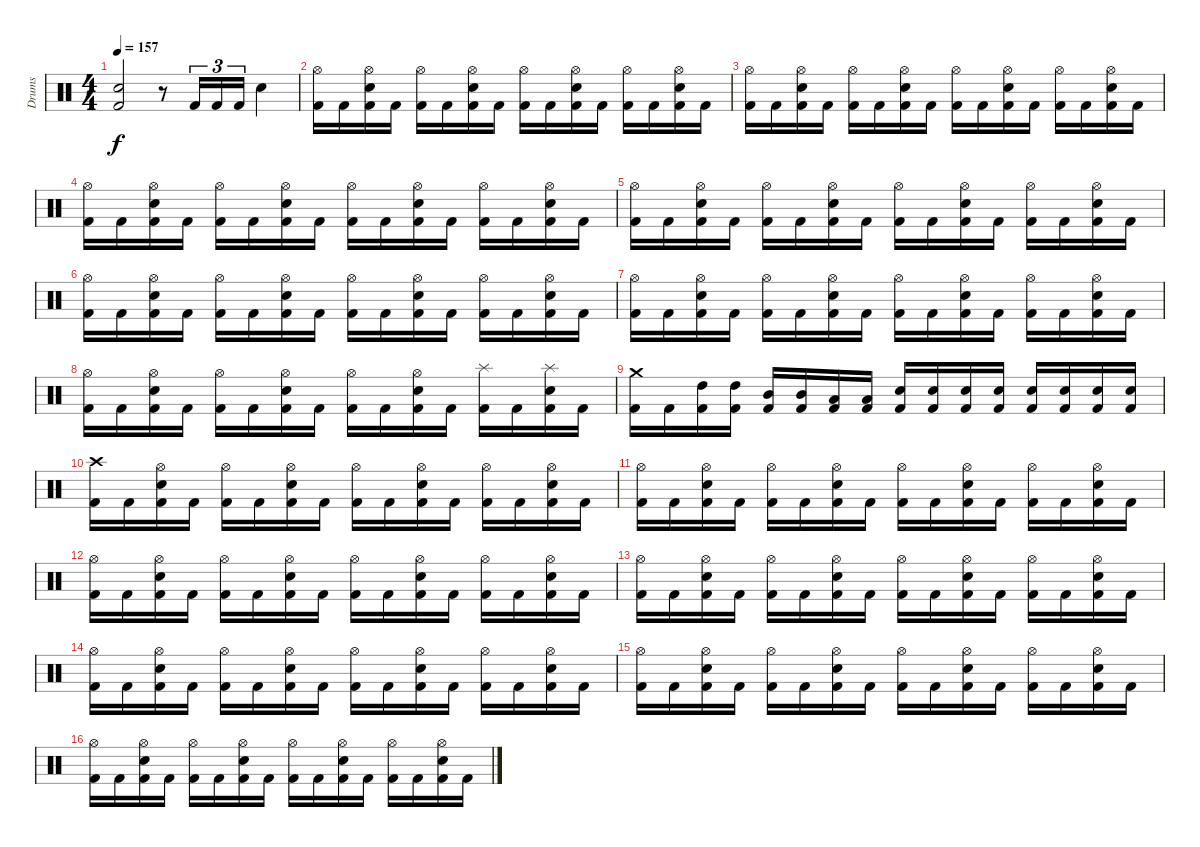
\track ("Drums" "Drums") {instrument percussion}
\staff {score}
\articulation defaults
\ts (4 4)
\tempo 157
\clef neutral
\ks c
("Kick (hit) 2" "Electric Snare (hit)").2{dy f} r.8 "Kick (hit) 2".16{tu (3 2)} "Kick (hit) 2".16{tu (3 2)} "Kick (hit) 2".16{tu (3 2)} "Electric Snare (hit)".4 |
("Kick (hit) 2" "Hi-Hat (open)").16 "Kick (hit) 2".16 ("Kick (hit) 2" "Electric Snare (hit)" "Hi-Hat (open)").16 "Kick (hit) 2".16 ("Kick (hit) 2" "Hi-Hat (open)").16 "Kick (hit) 2".16 ("Kick (hit) 2" "Electric Snare (hit)" "Hi-Hat (open)").16 "Kick (hit) 2".16 ("Kick (hit) 2" "Hi-Hat (open)").16 "Kick (hit) 2".16 ("Kick (hit) 2" "Electric Snare (hit)" "Hi-Hat (open)").16 "Kick (hit) 2".16 ("Kick (hit) 2" "Hi-Hat (open)").16 "Kick (hit) 2".16 ("Kick (hit) 2" "Electric Snare (hit)" "Hi-Hat (open)").16 "Kick (hit) 2".16 |
("Kick (hit) 2" "Hi-Hat (open)").16 "Kick (hit) 2".16 ("Kick (hit) 2" "Electric Snare (hit)" "Hi-Hat (open)").16 "Kick (hit) 2".16 ("Kick (hit) 2" "Hi-Hat (open)").16 "Kick (hit) 2".16 ("Kick (hit) 2" "Electric Snare (hit)" "Hi-Hat (open)").16 "Kick (hit) 2".16 ("Kick (hit) 2" "Hi-Hat (open)").16 "Kick (hit) 2".16 ("Kick (hit) 2" "Electric Snare (hit)" "Hi-Hat (open)").16 "Kick (hit) 2".16 ("Kick (hit) 2" "Hi-Hat (open)").16 "Kick (hit) 2".16 ("Kick (hit) 2" "Electric Snare (hit)" "Hi-Hat (open)").16 "Kick (hit) 2".16 |
("Kick (hit) 2" "Hi-Hat (open)").16 "Kick (hit) 2".16 ("Kick (hit) 2" "Electric Snare (hit)" "Hi-Hat (open)").16 "Kick (hit) 2".16 ("Kick (hit) 2" "Hi-Hat (open)").16 "Kick (hit) 2".16 ("Kick (hit) 2" "Electric Snare (hit)" "Hi-Hat (open)").16 "Kick (hit) 2".16 ("Kick (hit) 2" "Hi-Hat (open)").16 "Kick (hit) 2".16 ("Kick (hit) 2" "Electric Snare (hit)" "Hi-Hat (open)").16 "Kick (hit) 2".16 ("Kick (hit) 2" "Hi-Hat (open)").16 "Kick (hit) 2".16 ("Kick (hit) 2" "Electric Snare (hit)" "Hi-Hat (open)").16 "Kick (hit) 2".16 |
("Kick (hit) 2" "Hi-Hat (open)").16 "Kick (hit) 2".16 ("Kick (hit) 2" "Electric Snare (hit)" "Hi-Hat (open)").16 "Kick (hit) 2".16 ("Kick (hit) 2" "Hi-Hat (open)").16 "Kick (hit) 2".16 ("Kick (hit) 2" "Electric Snare (hit)" "Hi-Hat (open)").16 "Kick (hit) 2".16 ("Kick (hit) 2" "Hi-Hat (open)").16 "Kick (hit) 2".16 ("Kick (hit) 2" "Electric Snare (hit)" "Hi-Hat (open)").16 "Kick (hit) 2".16 ("Kick (hit) 2" "Hi-Hat (open)").16 "Kick (hit) 2".16 ("Kick (hit) 2" "Electric Snare (hit)" "Hi-Hat (open)").16 "Kick (hit) 2".16 |
("Kick (hit) 2" "Hi-Hat (open)").16 "Kick (hit) 2".16 ("Kick (hit) 2" "Electric Snare (hit)" "Hi-Hat (open)").16 "Kick (hit) 2".16 ("Kick (hit) 2" "Hi-Hat (open)").16 "Kick (hit) 2".16 ("Kick (hit) 2" "Electric Snare (hit)" "Hi-Hat (open)").16 "Kick (hit) 2".16 ("Kick (hit) 2" "Hi-Hat (open)").16 "Kick (hit) 2".16 ("Kick (hit) 2" "Electric Snare (hit)" "Hi-Hat (open)").16 "Kick (hit) 2".16 ("Kick (hit) 2" "Hi-Hat (open)").16 "Kick (hit) 2".16 ("Kick (hit) 2" "Electric Snare (hit)" "Hi-Hat (open)").16 "Kick (hit) 2".16 |
("Kick (hit) 2" "Hi-Hat (open)").16 "Kick (hit) 2".16 ("Kick (hit) 2" "Electric Snare (hit)" "Hi-Hat (open)").16 "Kick (hit) 2".16 ("Kick (hit) 2" "Hi-Hat (open)").16 "Kick (hit) 2".16 ("Kick (hit) 2" "Electric Snare (hit)" "Hi-Hat (open)").16 "Kick (hit) 2".16 ("Kick (hit) 2" "Hi-Hat (open)").16 "Kick (hit) 2".16 ("Kick (hit) 2" "Electric Snare (hit)" "Hi-Hat (open)").16 "Kick (hit) 2".16 ("Kick (hit) 2" "Hi-Hat (open)").16 "Kick (hit) 2".16 ("Kick (hit) 2" "Electric Snare (hit)" "Hi-Hat (open)").16 "Kick (hit) 2".16 |
("Kick (hit) 2" "Hi-Hat (open)").16 "Kick (hit) 2".16 ("Kick (hit) 2" "Electric Snare (hit)" "Hi-Hat (open)").16 "Kick (hit) 2".16 ("Kick (hit) 2" "Hi-Hat (open)").16 "Kick (hit) 2".16 ("Kick (hit) 2" "Electric Snare (hit)" "Hi-Hat (open)").16 "Kick (hit) 2".16 ("Kick (hit) 2" "Hi-Hat (open)").16 "Kick (hit) 2".16 ("Kick (hit) 2" "Electric Snare (hit)" "Hi-Hat (open)").16 "Kick (hit) 2".16 ("Kick (hit) 2" "Splash (hit)").16 "Kick (hit) 2".16 ("Kick (hit) 2" "Electric Snare (hit)" "Splash (hit)").16 "Kick (hit) 2".16 |
("Kick (hit) 2" "Crash medium (hit)").16 "Kick (hit) 2".16 ("Kick (hit) 2" "High Tom (hit)").16 ("Kick (hit) 2" "High Tom (hit)").16 ("Kick (hit) 2" "Mid Tom (hit)").16 ("Kick (hit) 2" "Mid Tom (hit)").16 ("Kick (hit) 2" "Low Tom (hit)").16 ("Kick (hit) 2" "Low Tom (hit)").16 ("Kick (hit) 2" "Electric Snare (hit)").16 ("Kick (hit) 2" "Electric Snare (hit)").16 ("Kick (hit) 2" "Electric Snare (hit)").16 ("Kick (hit) 2" "Electric Snare (hit)").16 ("Kick (hit) 2" "Electric Snare (hit)").16 ("Kick (hit) 2" "Electric Snare (hit)").16 ("Kick (hit) 2" "Electric Snare (hit)").16 ("Kick (hit) 2" "Electric Snare (hit)").16 |
("Kick (hit) 2" "Crash high (hit)").16 "Kick (hit) 2".16 ("Kick (hit) 2" "Electric Snare (hit)" "Hi-Hat (open)").16 "Kick (hit) 2".16 ("Kick (hit) 2" "Hi-Hat (open)").16 "Kick (hit) 2".16 ("Kick (hit) 2" "Electric Snare (hit)" "Hi-Hat (open)").16 "Kick (hit) 2".16 ("Kick (hit) 2" "Hi-Hat (open)").16 "Kick (hit) 2".16 ("Kick (hit) 2" "Electric Snare (hit)" "Hi-Hat (open)").16 "Kick (hit) 2".16 ("Kick (hit) 2" "Hi-Hat (open)").16 "Kick (hit) 2".16 ("Kick (hit) 2" "Electric Snare (hit)" "Hi-Hat (open)").16 "Kick (hit) 2".16 |
("Kick (hit) 2" "Hi-Hat (open)").16 "Kick (hit) 2".16 ("Kick (hit) 2" "Electric Snare (hit)" "Hi-Hat (open)").16 "Kick (hit) 2".16 ("Kick (hit) 2" "Hi-Hat (open)").16 "Kick (hit) 2".16 ("Kick (hit) 2" "Electric Snare (hit)" "Hi-Hat (open)").16 "Kick (hit) 2".16 ("Kick (hit) 2" "Hi-Hat (open)").16 "Kick (hit) 2".16 ("Kick (hit) 2" "Electric Snare (hit)" "Hi-Hat (open)").16 "Kick (hit) 2".16 ("Kick (hit) 2" "Hi-Hat (open)").16 "Kick (hit) 2".16 ("Kick (hit) 2" "Electric Snare (hit)" "Hi-Hat (open)").16 "Kick (hit) 2".16 |
("Kick (hit) 2" "Hi-Hat (open)").16 "Kick (hit) 2".16 ("Kick (hit) 2" "Electric Snare (hit)" "Hi-Hat (open)").16 "Kick (hit) 2".16 ("Kick (hit) 2" "Hi-Hat (open)").16 "Kick (hit) 2".16 ("Kick (hit) 2" "Electric Snare (hit)" "Hi-Hat (open)").16 "Kick (hit) 2".16 ("Kick (hit) 2" "Hi-Hat (open)").16 "Kick (hit) 2".16 ("Kick (hit) 2" "Electric Snare (hit)" "Hi-Hat (open)").16 "Kick (hit) 2".16 ("Kick (hit) 2" "Hi-Hat (open)").16 "Kick (hit) 2".16 ("Kick (hit) 2" "Electric Snare (hit)" "Hi-Hat (open)").16 "Kick (hit) 2".16 |
("Kick (hit) 2" "Hi-Hat (open)").16 "Kick (hit) 2".16 ("Kick (hit) 2" "Electric Snare (hit)" "Hi-Hat (open)").16 "Kick (hit) 2".16 ("Kick (hit) 2" "Hi-Hat (open)").16 "Kick (hit) 2".16 ("Kick (hit) 2" "Electric Snare (hit)" "Hi-Hat (open)").16 "Kick (hit) 2".16 ("Kick (hit) 2" "Hi-Hat (open)").16 "Kick (hit) 2".16 ("Kick (hit) 2" "Electric Snare (hit)" "Hi-Hat (open)").16 "Kick (hit) 2".16 ("Kick (hit) 2" "Hi-Hat (open)").16 "Kick (hit) 2".16 ("Kick (hit) 2" "Electric Snare (hit)" "Hi-Hat (open)").16 "Kick (hit) 2".16 |
("Kick (hit) 2" "Hi-Hat (open)").16 "Kick (hit) 2".16 ("Kick (hit) 2" "Electric Snare (hit)" "Hi-Hat (open)").16 "Kick (hit) 2".16 ("Kick (hit) 2" "Hi-Hat (open)").16 "Kick (hit) 2".16 ("Kick (hit) 2" "Electric Snare (hit)" "Hi-Hat (open)").16 "Kick (hit) 2".16 ("Kick (hit) 2" "Hi-Hat (open)").16 "Kick (hit) 2".16 ("Kick (hit) 2" "Electric Snare (hit)" "Hi-Hat (open)").16 "Kick (hit) 2".16 ("Kick (hit) 2" "Hi-Hat (open)").16 "Kick (hit) 2".16 ("Kick (hit) 2" "Electric Snare (hit)" "Hi-Hat (open)").16 "Kick (hit) 2".16 |
("Kick (hit) 2" "Hi-Hat (open)").16 "Kick (hit) 2".16 ("Kick (hit) 2" "Electric Snare (hit)" "Hi-Hat (open)").16 "Kick (hit) 2".16 ("Kick (hit) 2" "Hi-Hat (open)").16 "Kick (hit) 2".16 ("Kick (hit) 2" "Electric Snare (hit)" "Hi-Hat (open)").16 "Kick (hit) 2".16 ("Kick (hit) 2" "Hi-Hat (open)").16 "Kick (hit) 2".16 ("Kick (hit) 2" "Electric Snare (hit)" "Hi-Hat (open)").16 "Kick (hit) 2".16 ("Kick (hit) 2" "Hi-Hat (open)").16 "Kick (hit) 2".16 ("Kick (hit) 2" "Electric Snare (hit)" "Hi-Hat (open)").16 "Kick (hit) 2".16 |
("Kick (hit) 2" "Hi-Hat (open)").16 "Kick (hit) 2".16 ("Kick (hit) 2" "Electric Snare (hit)" "Hi-Hat (open)").16 "Kick (hit) 2".16 ("Kick (hit) 2" "Hi-Hat (open)").16 "Kick (hit) 2".16 ("Kick (hit) 2" "Electric Snare (hit)" "Hi-Hat (open)").16 "Kick (hit) 2".16 ("Kick (hit) 2" "Hi-Hat (open)").16 "Kick (hit) 2".16 ("Kick (hit) 2" "Electric Snare (hit)" "Hi-Hat (open)").16 "Kick (hit) 2".16 ("Kick (hit) 2" "Hi-Hat (open)").16 "Kick (hit) 2".16 ("Kick (hit) 2" "Electric Snare (hit)" "Hi-Hat (open)").16 "Kick (hit) 2".16
